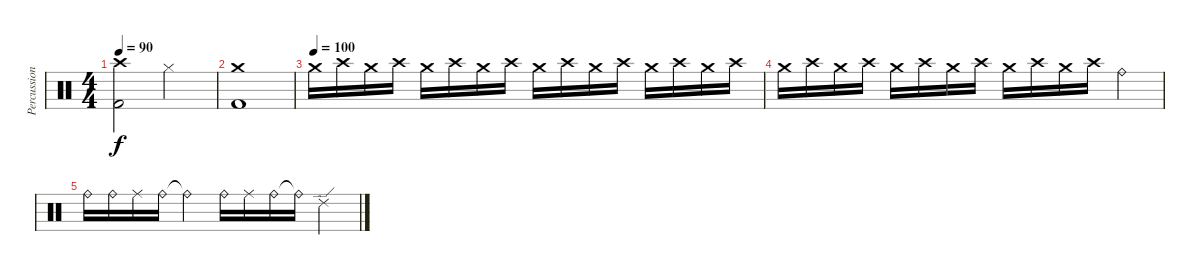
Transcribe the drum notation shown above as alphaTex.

\track ("Percussion" "Percussion") {instrument percussion}
\staff {score}
\articulation defaults
\ts (4 4)
\tempo 90
\clef neutral
\ks c
("Crash high (hit)" "Kick (hit) 2").2{dy f} "Hi-Hat (closed)".2 |
("Crash medium (hit)" "Kick (hit) 2").1 |
\tempo (100)
"Crash medium (hit)".16{volume 6} "Crash high (hit)".16 "Crash medium (hit)".16 "Crash high (hit)".16 "Crash medium (hit)".16 "Crash high (hit)".16 "Crash medium (hit)".16 "Crash high (hit)".16 "Crash medium (hit)".16 "Crash high (hit)".16 "Crash medium (hit)".16 "Crash high (hit)".16 "Crash medium (hit)".16 "Crash high (hit)".16 "Crash medium (hit)".16 "Crash high (hit)".16 |
"Crash medium (hit)".16 "Crash high (hit)".16 "Crash medium (hit)".16 "Crash high (hit)".16 "Crash medium (hit)".16 "Crash high (hit)".16 "Crash medium (hit)".16 "Crash high (hit)".16 "Crash medium (hit)".16 "Crash high (hit)".16 "Crash medium (hit)".16 "Crash high (hit)".16 "Ride (bell)".4 |
"Ride (bell)".16{volume 11} "Ride (bell)".16 "Ride (middle)".16 "Ride (bell)".16 "Ride (bell)"{t}.4 "Ride (bell)".16 "Ride (middle)".16 "Ride (bell)".16 "Ride (bell)"{t}.16 "Ride (edge) 2".4
